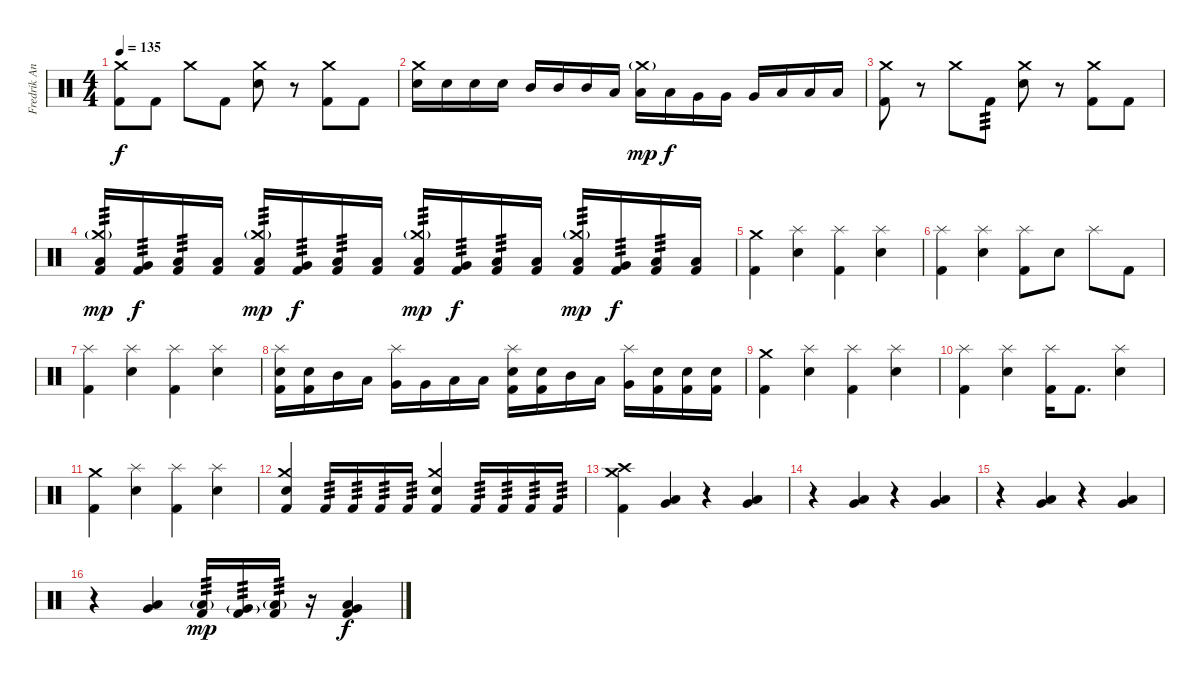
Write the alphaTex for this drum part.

\track ("Fredrik Andersson" "Fredrik An") {instrument percussion}
\staff {score}
\articulation defaults
\ts (4 4)
\tempo 135
\clef neutral
\ks c
("Kick (hit) 2" "Crash medium (hit)").8{dy f} "Kick (hit) 2".8 "Crash medium (hit)".8 "Kick (hit) 2".8 ("Snare (hit) 2" "Crash medium (hit)").8 r.8 ("Kick (hit) 2" "Crash medium (hit)").8 "Kick (hit) 2".8 |
("Snare (hit) 2" "Crash medium (hit)").16 "Snare (hit) 2".16 "Snare (hit) 2".16 "Snare (hit) 2".16 "Mid Tom (hit)".16 "Mid Tom (hit)".16 "Mid Tom (hit)".16 "Low Tom (hit)".16 ("Low Tom (hit)" "Crash medium (hit)"{g}).16{dy mp} "Low Tom (hit)".16{dy f} "Very Low Tom (hit)".16 "Very Low Tom (hit)".16 "Very Low Tom (hit)".16 "Low Floor Tom (hit)".16 "Low Floor Tom (hit)".16 "Low Floor Tom (hit)".16 |
("Kick (hit) 2" "Crash medium (hit)").8 r.8 "Crash medium (hit)".8 "Kick (hit) 2".8{tp 3} ("Snare (hit) 2" "Crash medium (hit)").8 r.8 ("Kick (hit) 2" "Crash medium (hit)").8 "Kick (hit) 2".8 |
("Kick (hit) 2" "Low Tom (hit)" "Crash medium (hit)"{g}).16{tp 3 dy mp} ("Kick (hit) 2" "Very Low Tom (hit)").16{tp 3 dy f} ("Kick (hit) 2" "Low Floor Tom (hit)").16{tp 3} ("Kick (hit) 2" "Low Floor Tom (hit)").16 ("Kick (hit) 2" "Low Tom (hit)" "Crash medium (hit)"{g}).16{tp 3 dy mp} ("Kick (hit) 2" "Very Low Tom (hit)").16{tp 3 dy f} ("Kick (hit) 2" "Low Floor Tom (hit)").16{tp 3} ("Kick (hit) 2" "Low Floor Tom (hit)").16 ("Kick (hit) 2" "Low Tom (hit)" "Crash medium (hit)"{g}).16{tp 3 dy mp} ("Kick (hit) 2" "Very Low Tom (hit)").16{tp 3 dy f} ("Kick (hit) 2" "Low Floor Tom (hit)").16{tp 3} ("Kick (hit) 2" "Low Floor Tom (hit)").16 ("Kick (hit) 2" "Low Tom (hit)" "Crash medium (hit)"{g}).16{tp 3 dy mp} ("Kick (hit) 2" "Very Low Tom (hit)").16{tp 3 dy f} ("Kick (hit) 2" "Low Floor Tom (hit)").16{tp 3} ("Kick (hit) 2" "Low Floor Tom (hit)").16 |
("Kick (hit) 2" "Crash medium (hit)").4 ("Snare (hit) 2" "Splash (hit)").4 ("Kick (hit) 2" "Splash (hit)").4 ("Snare (hit) 2" "Splash (hit)").4 |
("Kick (hit) 2" "Splash (hit)").4 ("Snare (hit) 2" "Splash (hit)").4 ("Kick (hit) 2" "Splash (hit)").8 "Snare (hit) 2".8 "Splash (hit)".8 "Kick (hit) 2".8 |
("Kick (hit) 2" "Splash (hit)").4 ("Snare (hit) 2" "Splash (hit)").4 ("Kick (hit) 2" "Splash (hit)").4 ("Snare (hit) 2" "Splash (hit)").4 |
("Kick (hit) 2" "Snare (hit) 2" "Splash (hit)").16 ("Kick (hit) 2" "Snare (hit) 2").16 "Mid Tom (hit)".16 "Low Tom (hit)".16 ("Very Low Tom (hit)" "Splash (hit)").16 "Very Low Tom (hit)".16 "Low Floor Tom (hit)".16 "Low Floor Tom (hit)".16 ("Kick (hit) 2" "Snare (hit) 2" "Splash (hit)").16 ("Kick (hit) 2" "Snare (hit) 2").16 "Mid Tom (hit)".16 "Low Tom (hit)".16 ("Very Low Tom (hit)" "Splash (hit)").16 ("Kick (hit) 2" "Snare (hit) 2").16 ("Kick (hit) 2" "Snare (hit) 2").16 ("Kick (hit) 2" "Snare (hit) 2").16 |
("Kick (hit) 2" "Crash medium (hit)").4 ("Snare (hit) 2" "Splash (hit)").4 ("Kick (hit) 2" "Splash (hit)").4 ("Snare (hit) 2" "Splash (hit)").4 |
("Kick (hit) 2" "Splash (hit)").4 ("Snare (hit) 2" "Splash (hit)").4 ("Kick (hit) 2" "Splash (hit)").16 "Kick (hit) 2".8{d} ("Snare (hit) 2" "Splash (hit)").4 |
("Kick (hit) 2" "Crash medium (hit)").4 ("Snare (hit) 2" "Splash (hit)").4 ("Kick (hit) 2" "Splash (hit)").4 ("Snare (hit) 2" "Splash (hit)").4 |
("Kick (hit) 2" "Snare (hit) 2" "Crash medium (hit)").4 "Kick (hit) 2".16{tp 3} "Kick (hit) 2".16{tp 3} "Kick (hit) 2".16{tp 3} "Kick (hit) 2".16{tp 3} ("Kick (hit) 2" "Snare (hit) 2" "Crash medium (hit)").4 "Kick (hit) 2".16{tp 3} "Kick (hit) 2".16{tp 3} "Kick (hit) 2".16{tp 3} "Kick (hit) 2".16{tp 3} |
("Kick (hit) 2" "Crash medium (hit)" "Crash high (hit)").4 ("Low Tom (hit)" "Very Low Tom (hit)").4 r.4 ("Low Tom (hit)" "Very Low Tom (hit)").4 |
r.4 ("Low Tom (hit)" "Very Low Tom (hit)").4 r.4 ("Low Tom (hit)" "Very Low Tom (hit)").4 |
r.4 ("Low Tom (hit)" "Very Low Tom (hit)").4 r.4 ("Low Tom (hit)" "Very Low Tom (hit)").4 |
r.4 ("Low Tom (hit)" "Very Low Tom (hit)").4 ("Kick (hit) 2" "Low Tom (hit)"{g}).16{tp 3 dy mp} ("Kick (hit) 2" "Very Low Tom (hit)"{g}).16{tp 3} ("Kick (hit) 2" "Low Floor Tom (hit)"{g}).16{tp 3} r.16 ("Kick (hit) 2" "Low Tom (hit)" "Very Low Tom (hit)").4{dy f}
